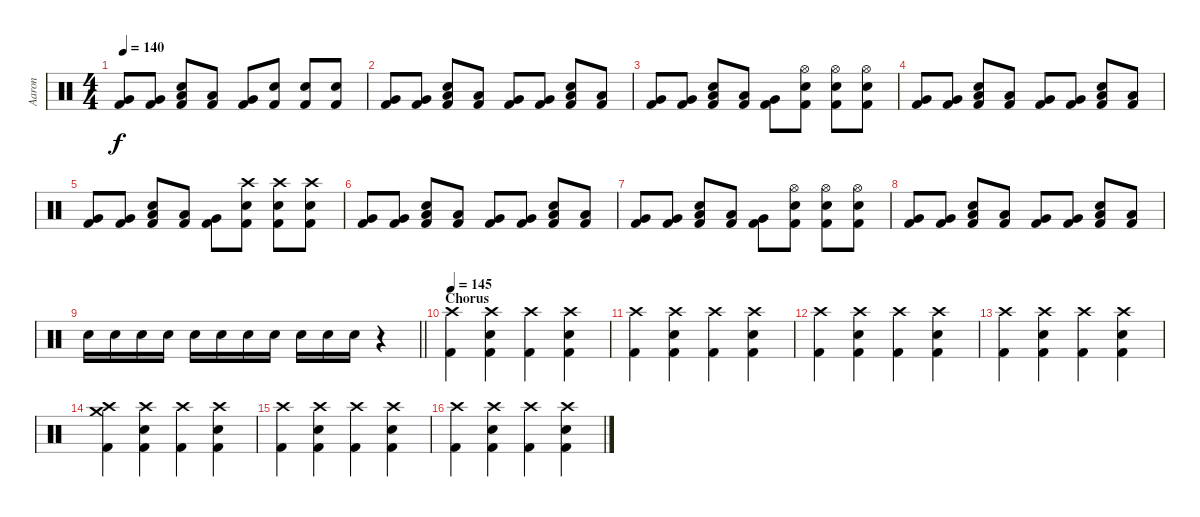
\track ("Aaron" "Aaron") {instrument percussion}
\staff {score}
\articulation defaults
\ts (4 4)
\tempo 140
\clef neutral
\ks c
("Very Low Tom (hit)" "Kick (hit) 2").8{dy f} ("Very Low Tom (hit)" "Kick (hit) 2").8 ("Low Tom (hit)" "Snare (hit) 2" "Kick (hit) 2").8 ("Low Floor Tom (hit)" "Kick (hit) 2").8 ("Very Low Tom (hit)" "Kick (hit) 2").8 ("Snare (hit) 2" "Kick (hit) 2").8 ("Snare (hit) 2" "Kick (hit) 2").8 ("Snare (hit) 2" "Kick (hit) 2").8 |
("Very Low Tom (hit)" "Kick (hit) 2").8 ("Very Low Tom (hit)" "Kick (hit) 2").8 ("Low Tom (hit)" "Snare (hit) 2" "Kick (hit) 2").8 ("Low Floor Tom (hit)" "Kick (hit) 2").8 ("Very Low Tom (hit)" "Kick (hit) 2").8 ("Very Low Tom (hit)" "Kick (hit) 2").8 ("Low Tom (hit)" "Snare (hit) 2" "Kick (hit) 2").8 ("Low Floor Tom (hit)" "Kick (hit) 2").8 |
("Very Low Tom (hit)" "Kick (hit) 2").8 ("Very Low Tom (hit)" "Kick (hit) 2").8 ("Low Tom (hit)" "Snare (hit) 2" "Kick (hit) 2").8 ("Low Floor Tom (hit)" "Kick (hit) 2").8 ("Very Low Tom (hit)" "Kick (hit) 2").8 ("Hi-Hat (open)" "Snare (hit) 2" "Kick (hit) 2").8 ("Hi-Hat (open)" "Snare (hit) 2" "Kick (hit) 2").8 ("Hi-Hat (open)" "Snare (hit) 2" "Kick (hit) 2").8 |
("Very Low Tom (hit)" "Kick (hit) 2").8 ("Very Low Tom (hit)" "Kick (hit) 2").8 ("Low Tom (hit)" "Snare (hit) 2" "Kick (hit) 2").8 ("Low Floor Tom (hit)" "Kick (hit) 2").8 ("Very Low Tom (hit)" "Kick (hit) 2").8 ("Very Low Tom (hit)" "Kick (hit) 2").8 ("Low Tom (hit)" "Snare (hit) 2" "Kick (hit) 2").8 ("Low Floor Tom (hit)" "Kick (hit) 2").8 |
("Very Low Tom (hit)" "Kick (hit) 2").8 ("Very Low Tom (hit)" "Kick (hit) 2").8 ("Low Tom (hit)" "Snare (hit) 2" "Kick (hit) 2").8 ("Low Floor Tom (hit)" "Kick (hit) 2").8 ("Very Low Tom (hit)" "Kick (hit) 2").8 ("Crash high (hit)" "Snare (hit) 2" "Kick (hit) 2").8 ("Crash high (hit)" "Snare (hit) 2" "Kick (hit) 2").8 ("Crash high (hit)" "Snare (hit) 2" "Kick (hit) 2").8 |
("Very Low Tom (hit)" "Kick (hit) 2").8 ("Very Low Tom (hit)" "Kick (hit) 2").8 ("Low Tom (hit)" "Snare (hit) 2" "Kick (hit) 2").8 ("Low Floor Tom (hit)" "Kick (hit) 2").8 ("Very Low Tom (hit)" "Kick (hit) 2").8 ("Very Low Tom (hit)" "Kick (hit) 2").8 ("Low Tom (hit)" "Snare (hit) 2" "Kick (hit) 2").8 ("Low Floor Tom (hit)" "Kick (hit) 2").8 |
("Very Low Tom (hit)" "Kick (hit) 2").8 ("Very Low Tom (hit)" "Kick (hit) 2").8 ("Low Tom (hit)" "Snare (hit) 2" "Kick (hit) 2").8 ("Low Floor Tom (hit)" "Kick (hit) 2").8 ("Very Low Tom (hit)" "Kick (hit) 2").8 ("Hi-Hat (open)" "Snare (hit) 2" "Kick (hit) 2").8 ("Hi-Hat (open)" "Snare (hit) 2" "Kick (hit) 2").8 ("Hi-Hat (open)" "Snare (hit) 2" "Kick (hit) 2").8 |
("Very Low Tom (hit)" "Kick (hit) 2").8 ("Very Low Tom (hit)" "Kick (hit) 2").8 ("Low Tom (hit)" "Snare (hit) 2" "Kick (hit) 2").8 ("Low Floor Tom (hit)" "Kick (hit) 2").8 ("Very Low Tom (hit)" "Kick (hit) 2").8 ("Very Low Tom (hit)" "Kick (hit) 2").8 ("Low Tom (hit)" "Snare (hit) 2" "Kick (hit) 2").8 ("Low Floor Tom (hit)" "Kick (hit) 2").8 |
\barLineRight lightlight "Snare (hit) 2".16 "Snare (hit) 2".16 "Snare (hit) 2".16 "Snare (hit) 2".16 "Snare (hit) 2".16 "Snare (hit) 2".16 "Snare (hit) 2".16 "Snare (hit) 2".16 "Snare (hit) 2".16 "Snare (hit) 2".16 "Snare (hit) 2".16
r.4 |
\section ("" "Chorus")
\tempo 145
("Crash high (hit)" "Kick (hit) 2").4 ("Crash high (hit)" "Snare (hit) 2" "Kick (hit) 2").4 ("Crash high (hit)" "Kick (hit) 2").4 ("Crash high (hit)" "Snare (hit) 2" "Kick (hit) 2").4 |
("Crash high (hit)" "Kick (hit) 2").4 ("Crash high (hit)" "Snare (hit) 2" "Kick (hit) 2").4 ("Crash high (hit)" "Kick (hit) 2").4 ("Crash high (hit)" "Snare (hit) 2" "Kick (hit) 2").4 |
("Crash high (hit)" "Kick (hit) 2").4 ("Crash high (hit)" "Snare (hit) 2" "Kick (hit) 2").4 ("Crash high (hit)" "Kick (hit) 2").4 ("Crash high (hit)" "Snare (hit) 2" "Kick (hit) 2").4 |
("Crash high (hit)" "Kick (hit) 2").4 ("Crash high (hit)" "Snare (hit) 2" "Kick (hit) 2").4 ("Crash high (hit)" "Kick (hit) 2").4 ("Crash high (hit)" "Snare (hit) 2" "Kick (hit) 2").4 |
("Crash high (hit)" "Crash medium (hit)" "Kick (hit) 2").4 ("Crash high (hit)" "Snare (hit) 2" "Kick (hit) 2").4 ("Crash high (hit)" "Kick (hit) 2").4 ("Crash high (hit)" "Snare (hit) 2" "Kick (hit) 2").4 |
("Crash high (hit)" "Kick (hit) 2").4 ("Crash high (hit)" "Snare (hit) 2" "Kick (hit) 2").4 ("Crash high (hit)" "Kick (hit) 2").4 ("Crash high (hit)" "Snare (hit) 2" "Kick (hit) 2").4 |
("Crash high (hit)" "Kick (hit) 2").4 ("Crash high (hit)" "Snare (hit) 2" "Kick (hit) 2").4 ("Crash high (hit)" "Kick (hit) 2").4 ("Crash high (hit)" "Snare (hit) 2" "Kick (hit) 2").4
